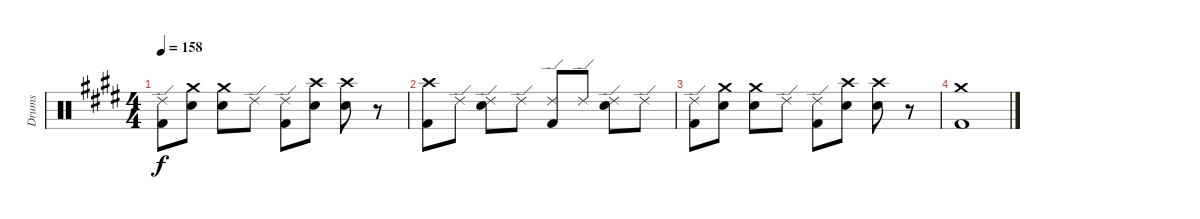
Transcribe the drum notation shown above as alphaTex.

\track ("Drums" "Drums") {instrument percussion}
\staff {score}
\articulation defaults
\ts (4 4)
\tempo 158
\clef neutral
\ks c#minor
("Ride (edge) 2" "Kick (hit) 2").8{dy f} ("Crash medium (hit)" "Snare (hit) 2").8 ("Crash medium (hit)" "Snare (hit) 2").8 "Ride (edge) 2".8 ("Ride (edge) 2" "Kick (hit) 2").8 ("Crash high (hit)" "Snare (hit) 2").8 ("Crash high (hit)" "Snare (hit) 2").8 r.8 |
("Crash high (hit)" "Kick (hit) 2").8 "Ride (edge) 2".8 ("Ride (edge) 2" "Snare (hit) 2").8 "Ride (edge) 2".8 ("Ride (edge) 2" "Kick (hit) 2").8 "Ride (edge) 2".8 ("Ride (edge) 2" "Snare (hit) 2").8 "Ride (edge) 2".8 |
("Ride (edge) 2" "Kick (hit) 2").8 ("Crash medium (hit)" "Snare (hit) 2").8 ("Crash medium (hit)" "Snare (hit) 2").8 "Ride (edge) 2".8 ("Ride (edge) 2" "Kick (hit) 2").8 ("Crash high (hit)" "Snare (hit) 2").8 ("Crash high (hit)" "Snare (hit) 2").8 r.8 |
("Crash medium (hit)" "Kick (hit) 2").1
